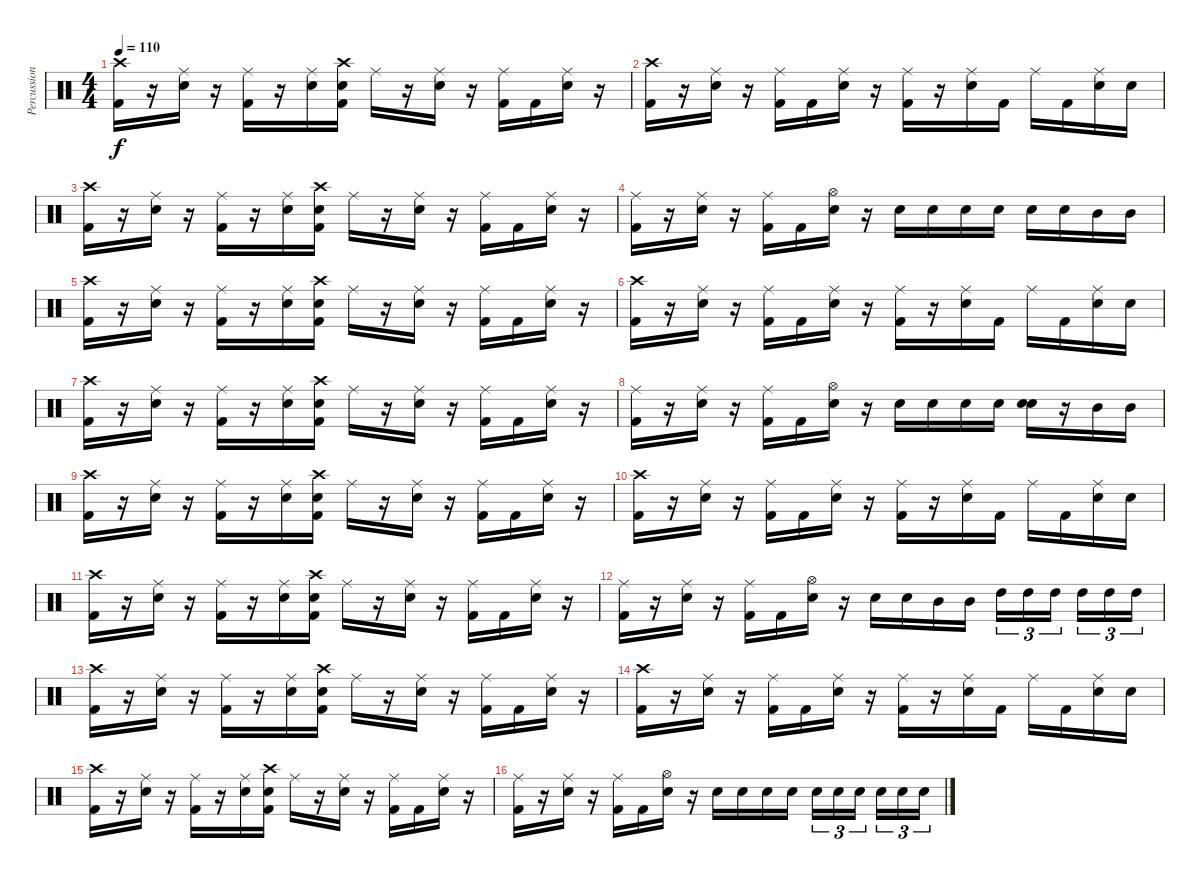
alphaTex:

\track ("Percussion" "Percussion") {instrument percussion}
\staff {score}
\articulation defaults
\ts (4 4)
\tempo 110
\clef neutral
\ks c
("Crash high (hit)" "Kick (hit) 2").16{dy f} r.16 ("Ride (middle)" "Electric Snare (hit)").16 r.16 ("Ride (middle)" "Kick (hit) 2").16 r.16 ("Ride (middle)" "Electric Snare (hit)").16 ("Crash high (hit)" "Kick (hit) 2" "Electric Snare (hit)").16 "Ride (middle)".16 r.16 ("Ride (middle)" "Electric Snare (hit)").16 r.16 ("Ride (middle)" "Kick (hit) 2").16 "Kick (hit) 2".16 ("Ride (middle)" "Electric Snare (hit)").16 r.16 |
("Crash high (hit)" "Kick (hit) 2").16 r.16 ("Ride (middle)" "Electric Snare (hit)").16 r.16 ("Ride (middle)" "Kick (hit) 2").16 "Kick (hit) 2".16 ("Ride (middle)" "Electric Snare (hit)").16 r.16 ("Ride (middle)" "Kick (hit) 2").16 r.16 ("Ride (middle)" "Electric Snare (hit)").16 "Kick (hit) 2".16 "Ride (middle)".16 "Kick (hit) 2".16 ("Ride (middle)" "Electric Snare (hit)").16 "Electric Snare (hit)".16 |
("Crash high (hit)" "Kick (hit) 2").16 r.16 ("Ride (middle)" "Electric Snare (hit)").16 r.16 ("Ride (middle)" "Kick (hit) 2").16 r.16 ("Ride (middle)" "Electric Snare (hit)").16 ("Crash high (hit)" "Kick (hit) 2" "Electric Snare (hit)").16 "Ride (middle)".16 r.16 ("Ride (middle)" "Electric Snare (hit)").16 r.16 ("Ride (middle)" "Kick (hit) 2").16 "Kick (hit) 2".16 ("Ride (middle)" "Electric Snare (hit)").16 r.16 |
("Ride (middle)" "Kick (hit) 2").16 r.16 ("Ride (middle)" "Electric Snare (hit)").16 r.16 ("Ride (middle)" "Kick (hit) 2").16 "Kick (hit) 2".16 ("Hi-Hat (open)" "Electric Snare (hit)").16 r.16 "Electric Snare (hit)".16 "Electric Snare (hit)".16 "Electric Snare (hit)".16 "Electric Snare (hit)".16 "Electric Snare (hit)".16 "Electric Snare (hit)".16 "Mid Tom (hit)".16 "Mid Tom (hit)".16 |
("Crash high (hit)" "Kick (hit) 2").16 r.16 ("Ride (middle)" "Electric Snare (hit)").16 r.16 ("Ride (middle)" "Kick (hit) 2").16 r.16 ("Ride (middle)" "Electric Snare (hit)").16 ("Crash high (hit)" "Kick (hit) 2" "Electric Snare (hit)").16 "Ride (middle)".16 r.16 ("Ride (middle)" "Electric Snare (hit)").16 r.16 ("Ride (middle)" "Kick (hit) 2").16 "Kick (hit) 2".16 ("Ride (middle)" "Electric Snare (hit)").16 r.16 |
("Crash high (hit)" "Kick (hit) 2").16 r.16 ("Ride (middle)" "Electric Snare (hit)").16 r.16 ("Ride (middle)" "Kick (hit) 2").16 "Kick (hit) 2".16 ("Ride (middle)" "Electric Snare (hit)").16 r.16 ("Ride (middle)" "Kick (hit) 2").16 r.16 ("Ride (middle)" "Electric Snare (hit)").16 "Kick (hit) 2".16 "Ride (middle)".16 "Kick (hit) 2".16 ("Ride (middle)" "Electric Snare (hit)").16 "Electric Snare (hit)".16 |
("Crash high (hit)" "Kick (hit) 2").16 r.16 ("Ride (middle)" "Electric Snare (hit)").16 r.16 ("Ride (middle)" "Kick (hit) 2").16 r.16 ("Ride (middle)" "Electric Snare (hit)").16 ("Crash high (hit)" "Kick (hit) 2" "Electric Snare (hit)").16 "Ride (middle)".16 r.16 ("Ride (middle)" "Electric Snare (hit)").16 r.16 ("Ride (middle)" "Kick (hit) 2").16 "Kick (hit) 2".16 ("Ride (middle)" "Electric Snare (hit)").16 r.16 |
("Ride (middle)" "Kick (hit) 2").16 r.16 ("Ride (middle)" "Electric Snare (hit)").16 r.16 ("Ride (middle)" "Kick (hit) 2").16 "Kick (hit) 2".16 ("Hi-Hat (open)" "Electric Snare (hit)").16 r.16 "Electric Snare (hit)".16 "Electric Snare (hit)".16 "Electric Snare (hit)".16 "Electric Snare (hit)".16 ("Electric Snare (hit)" "Electric Snare (hit)").16 r.16 "Mid Tom (hit)".16 "Mid Tom (hit)".16 |
("Crash high (hit)" "Kick (hit) 2").16 r.16 ("Ride (middle)" "Electric Snare (hit)").16 r.16 ("Ride (middle)" "Kick (hit) 2").16 r.16 ("Ride (middle)" "Electric Snare (hit)").16 ("Crash high (hit)" "Kick (hit) 2" "Electric Snare (hit)").16 "Ride (middle)".16 r.16 ("Ride (middle)" "Electric Snare (hit)").16 r.16 ("Ride (middle)" "Kick (hit) 2").16 "Kick (hit) 2".16 ("Ride (middle)" "Electric Snare (hit)").16 r.16 |
("Crash high (hit)" "Kick (hit) 2").16 r.16 ("Ride (middle)" "Electric Snare (hit)").16 r.16 ("Ride (middle)" "Kick (hit) 2").16 "Kick (hit) 2".16 ("Ride (middle)" "Electric Snare (hit)").16 r.16 ("Ride (middle)" "Kick (hit) 2").16 r.16 ("Ride (middle)" "Electric Snare (hit)").16 "Kick (hit) 2".16 "Ride (middle)".16 "Kick (hit) 2".16 ("Ride (middle)" "Electric Snare (hit)").16 "Electric Snare (hit)".16 |
("Crash high (hit)" "Kick (hit) 2").16 r.16 ("Ride (middle)" "Electric Snare (hit)").16 r.16 ("Ride (middle)" "Kick (hit) 2").16 r.16 ("Ride (middle)" "Electric Snare (hit)").16 ("Crash high (hit)" "Kick (hit) 2" "Electric Snare (hit)").16 "Ride (middle)".16 r.16 ("Ride (middle)" "Electric Snare (hit)").16 r.16 ("Ride (middle)" "Kick (hit) 2").16 "Kick (hit) 2".16 ("Ride (middle)" "Electric Snare (hit)").16 r.16 |
("Ride (middle)" "Kick (hit) 2").16 r.16 ("Ride (middle)" "Electric Snare (hit)").16 r.16 ("Ride (middle)" "Kick (hit) 2").16 "Kick (hit) 2".16 ("Hi-Hat (open)" "Electric Snare (hit)").16 r.16 "Electric Snare (hit)".16 "Electric Snare (hit)".16 "Mid Tom (hit)".16 "Mid Tom (hit)".16 "High Tom (hit)".16{tu (3 2)} "High Tom (hit)".16{tu (3 2)} "High Tom (hit)".16{tu (3 2) beam splitsecondary} "High Tom (hit)".16{tu (3 2)} "High Tom (hit)".16{tu (3 2)} "High Tom (hit)".16{tu (3 2)} |
("Crash high (hit)" "Kick (hit) 2").16 r.16 ("Ride (middle)" "Electric Snare (hit)").16 r.16 ("Ride (middle)" "Kick (hit) 2").16 r.16 ("Ride (middle)" "Electric Snare (hit)").16 ("Crash high (hit)" "Kick (hit) 2" "Electric Snare (hit)").16 "Ride (middle)".16 r.16 ("Ride (middle)" "Electric Snare (hit)").16 r.16 ("Ride (middle)" "Kick (hit) 2").16 "Kick (hit) 2".16 ("Ride (middle)" "Electric Snare (hit)").16 r.16 |
("Crash high (hit)" "Kick (hit) 2").16 r.16 ("Ride (middle)" "Electric Snare (hit)").16 r.16 ("Ride (middle)" "Kick (hit) 2").16 "Kick (hit) 2".16 ("Ride (middle)" "Electric Snare (hit)").16 r.16 ("Ride (middle)" "Kick (hit) 2").16 r.16 ("Ride (middle)" "Electric Snare (hit)").16 "Kick (hit) 2".16 "Ride (middle)".16 "Kick (hit) 2".16 ("Ride (middle)" "Electric Snare (hit)").16 "Electric Snare (hit)".16 |
("Crash high (hit)" "Kick (hit) 2").16 r.16 ("Ride (middle)" "Electric Snare (hit)").16 r.16 ("Ride (middle)" "Kick (hit) 2").16 r.16 ("Ride (middle)" "Electric Snare (hit)").16 ("Crash high (hit)" "Kick (hit) 2" "Electric Snare (hit)").16 "Ride (middle)".16 r.16 ("Ride (middle)" "Electric Snare (hit)").16 r.16 ("Ride (middle)" "Kick (hit) 2").16 "Kick (hit) 2".16 ("Ride (middle)" "Electric Snare (hit)").16 r.16 |
("Ride (middle)" "Kick (hit) 2").16 r.16 ("Ride (middle)" "Electric Snare (hit)").16 r.16 ("Ride (middle)" "Kick (hit) 2").16 "Kick (hit) 2".16 ("Hi-Hat (open)" "Electric Snare (hit)").16 r.16 "Electric Snare (hit)".16 "Electric Snare (hit)".16 "Electric Snare (hit)".16 "Electric Snare (hit)".16 "Electric Snare (hit)".16{tu (3 2)} "Electric Snare (hit)".16{tu (3 2)} "Electric Snare (hit)".16{tu (3 2) beam splitsecondary} "Electric Snare (hit)".16{tu (3 2)} "Electric Snare (hit)".16{tu (3 2)} "Electric Snare (hit)".16{tu (3 2)}
